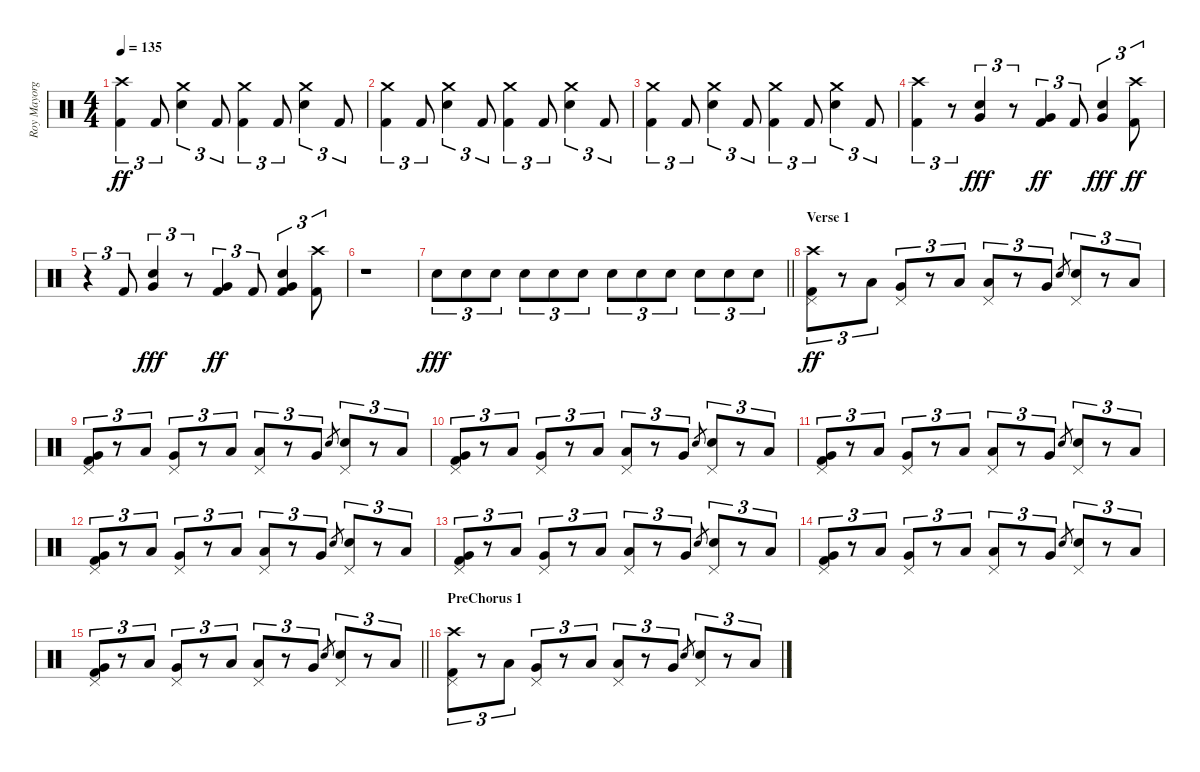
\track ("Roy Mayorga" "Roy Mayorg") {instrument percussion}
\staff {score}
\articulation defaults
\ts (4 4)
\tempo 135
\clef neutral
\ks c
("Crash high (hit)" "Kick (hit) 2").4{tu (3 2) dy ff} "Kick (hit) 2".8{tu (3 2)} ("Crash medium (hit)" "Electric Snare (hit)").4{tu (3 2)} "Kick (hit) 2".8{tu (3 2)} ("Crash medium (hit)" "Kick (hit) 2").4{tu (3 2)} "Kick (hit) 2".8{tu (3 2)} ("Crash medium (hit)" "Electric Snare (hit)").4{tu (3 2)} "Kick (hit) 2".8{tu (3 2)} |
("Crash medium (hit)" "Kick (hit) 2").4{tu (3 2)} "Kick (hit) 2".8{tu (3 2)} ("Crash medium (hit)" "Electric Snare (hit)").4{tu (3 2)} "Kick (hit) 2".8{tu (3 2)} ("Crash medium (hit)" "Kick (hit) 2").4{tu (3 2)} "Kick (hit) 2".8{tu (3 2)} ("Crash medium (hit)" "Electric Snare (hit)").4{tu (3 2)} "Kick (hit) 2".8{tu (3 2)} |
("Crash medium (hit)" "Kick (hit) 2").4{tu (3 2)} "Kick (hit) 2".8{tu (3 2)} ("Crash medium (hit)" "Electric Snare (hit)").4{tu (3 2)} "Kick (hit) 2".8{tu (3 2)} ("Crash medium (hit)" "Kick (hit) 2").4{tu (3 2)} "Kick (hit) 2".8{tu (3 2)} ("Crash medium (hit)" "Electric Snare (hit)").4{tu (3 2)} "Kick (hit) 2".8{tu (3 2)} |
("Crash high (hit)" "Kick (hit) 2").4{tu (3 2)} r.8{tu (3 2)} ("Electric Snare (hit)" "Very Low Tom (hit)").4{tu (3 2) dy fff} r.8{tu (3 2)} ("Very Low Tom (hit)" "Kick (hit) 2").4{tu (3 2) dy ff} "Kick (hit) 2".8{tu (3 2)} ("Electric Snare (hit)" "Very Low Tom (hit)").4{tu (3 2) dy fff} ("Crash high (hit)" "Kick (hit) 2").8{tu (3 2) dy ff} |
r.4{tu (3 2)} "Kick (hit) 2".8{tu (3 2)} ("Electric Snare (hit)" "Very Low Tom (hit)").4{tu (3 2) dy fff} r.8{tu (3 2)} ("Very Low Tom (hit)" "Kick (hit) 2").4{tu (3 2) dy ff} "Kick (hit) 2".8{tu (3 2)} ("Electric Snare (hit)" "Very Low Tom (hit)" "Kick (hit) 2").4{tu (3 2)} ("Crash high (hit)" "Kick (hit) 2").8{tu (3 2)} |
r.1 |
\barLineRight lightlight "Electric Snare (hit)".8{tu (3 2) dy fff} "Electric Snare (hit)".8{tu (3 2)} "Electric Snare (hit)".8{tu (3 2)} "Electric Snare (hit)".8{tu (3 2)} "Electric Snare (hit)".8{tu (3 2)} "Electric Snare (hit)".8{tu (3 2)} "Electric Snare (hit)".8{tu (3 2)} "Electric Snare (hit)".8{tu (3 2)} "Electric Snare (hit)".8{tu (3 2)} "Electric Snare (hit)".8{tu (3 2)} "Electric Snare (hit)".8{tu (3 2)} "Electric Snare (hit)".8{tu (3 2)}
|
\section ("" "Verse 1")
("Crash high (hit)" "Pedal Hi-Hat (hit)" "Kick (hit) 2").8{tu (3 2) dy ff} r.8{tu (3 2)} "Low Tom (hit)".8{tu (3 2)} ("Very Low Tom (hit)" "Pedal Hi-Hat (hit)").8{tu (3 2)} r.8{tu (3 2)} "Low Tom (hit)".8{tu (3 2)} ("Low Floor Tom (hit)" "Pedal Hi-Hat (hit)").8{tu (3 2)} r.8{tu (3 2)} "Very Low Tom (hit)".8{tu (3 2)} "Electric Snare (hit)".8{gr} ("Electric Snare (hit)" "Pedal Hi-Hat (hit)").8{tu (3 2)} r.8{tu (3 2)} "Low Floor Tom (hit)".8{tu (3 2)} |
("Pedal Hi-Hat (hit)" "Very Low Tom (hit)" "Kick (hit) 2").8{tu (3 2)} r.8{tu (3 2)} "Low Tom (hit)".8{tu (3 2)} ("Very Low Tom (hit)" "Pedal Hi-Hat (hit)").8{tu (3 2)} r.8{tu (3 2)} "Low Tom (hit)".8{tu (3 2)} ("Low Floor Tom (hit)" "Pedal Hi-Hat (hit)").8{tu (3 2)} r.8{tu (3 2)} "Very Low Tom (hit)".8{tu (3 2)} "Electric Snare (hit)".8{gr} ("Electric Snare (hit)" "Pedal Hi-Hat (hit)").8{tu (3 2)} r.8{tu (3 2)} "Low Floor Tom (hit)".8{tu (3 2)} |
("Pedal Hi-Hat (hit)" "Very Low Tom (hit)" "Kick (hit) 2").8{tu (3 2)} r.8{tu (3 2)} "Low Tom (hit)".8{tu (3 2)} ("Very Low Tom (hit)" "Pedal Hi-Hat (hit)").8{tu (3 2)} r.8{tu (3 2)} "Low Tom (hit)".8{tu (3 2)} ("Low Floor Tom (hit)" "Pedal Hi-Hat (hit)").8{tu (3 2)} r.8{tu (3 2)} "Very Low Tom (hit)".8{tu (3 2)} "Electric Snare (hit)".8{gr} ("Electric Snare (hit)" "Pedal Hi-Hat (hit)").8{tu (3 2)} r.8{tu (3 2)} "Low Floor Tom (hit)".8{tu (3 2)} |
("Pedal Hi-Hat (hit)" "Very Low Tom (hit)" "Kick (hit) 2").8{tu (3 2)} r.8{tu (3 2)} "Low Tom (hit)".8{tu (3 2)} ("Very Low Tom (hit)" "Pedal Hi-Hat (hit)").8{tu (3 2)} r.8{tu (3 2)} "Low Tom (hit)".8{tu (3 2)} ("Low Floor Tom (hit)" "Pedal Hi-Hat (hit)").8{tu (3 2)} r.8{tu (3 2)} "Very Low Tom (hit)".8{tu (3 2)} "Electric Snare (hit)".8{gr} ("Electric Snare (hit)" "Pedal Hi-Hat (hit)").8{tu (3 2)} r.8{tu (3 2)} "Low Floor Tom (hit)".8{tu (3 2)} |
("Pedal Hi-Hat (hit)" "Very Low Tom (hit)" "Kick (hit) 2").8{tu (3 2)} r.8{tu (3 2)} "Low Tom (hit)".8{tu (3 2)} ("Very Low Tom (hit)" "Pedal Hi-Hat (hit)").8{tu (3 2)} r.8{tu (3 2)} "Low Tom (hit)".8{tu (3 2)} ("Low Floor Tom (hit)" "Pedal Hi-Hat (hit)").8{tu (3 2)} r.8{tu (3 2)} "Very Low Tom (hit)".8{tu (3 2)} "Electric Snare (hit)".8{gr} ("Electric Snare (hit)" "Pedal Hi-Hat (hit)").8{tu (3 2)} r.8{tu (3 2)} "Low Floor Tom (hit)".8{tu (3 2)} |
("Pedal Hi-Hat (hit)" "Very Low Tom (hit)" "Kick (hit) 2").8{tu (3 2)} r.8{tu (3 2)} "Low Tom (hit)".8{tu (3 2)} ("Very Low Tom (hit)" "Pedal Hi-Hat (hit)").8{tu (3 2)} r.8{tu (3 2)} "Low Tom (hit)".8{tu (3 2)} ("Low Floor Tom (hit)" "Pedal Hi-Hat (hit)").8{tu (3 2)} r.8{tu (3 2)} "Very Low Tom (hit)".8{tu (3 2)} "Electric Snare (hit)".8{gr} ("Electric Snare (hit)" "Pedal Hi-Hat (hit)").8{tu (3 2)} r.8{tu (3 2)} "Low Floor Tom (hit)".8{tu (3 2)} |
("Pedal Hi-Hat (hit)" "Very Low Tom (hit)" "Kick (hit) 2").8{tu (3 2)} r.8{tu (3 2)} "Low Tom (hit)".8{tu (3 2)} ("Very Low Tom (hit)" "Pedal Hi-Hat (hit)").8{tu (3 2)} r.8{tu (3 2)} "Low Tom (hit)".8{tu (3 2)} ("Low Floor Tom (hit)" "Pedal Hi-Hat (hit)").8{tu (3 2)} r.8{tu (3 2)} "Very Low Tom (hit)".8{tu (3 2)} "Electric Snare (hit)".8{gr} ("Electric Snare (hit)" "Pedal Hi-Hat (hit)").8{tu (3 2)} r.8{tu (3 2)} "Low Floor Tom (hit)".8{tu (3 2)} |
\barLineRight lightlight
("Pedal Hi-Hat (hit)" "Very Low Tom (hit)" "Kick (hit) 2").8{tu (3 2)} r.8{tu (3 2)} "Low Tom (hit)".8{tu (3 2)} ("Very Low Tom (hit)" "Pedal Hi-Hat (hit)").8{tu (3 2)} r.8{tu (3 2)} "Low Tom (hit)".8{tu (3 2)} ("Low Floor Tom (hit)" "Pedal Hi-Hat (hit)").8{tu (3 2)} r.8{tu (3 2)} "Very Low Tom (hit)".8{tu (3 2)} "Electric Snare (hit)".8{gr} ("Electric Snare (hit)" "Pedal Hi-Hat (hit)").8{tu (3 2)} r.8{tu (3 2)} "Low Floor Tom (hit)".8{tu (3 2)} |
\section ("" "PreChorus 1")
("Crash high (hit)" "Pedal Hi-Hat (hit)" "Kick (hit) 2").8{tu (3 2)} r.8{tu (3 2)} "Low Tom (hit)".8{tu (3 2)} ("Very Low Tom (hit)" "Pedal Hi-Hat (hit)").8{tu (3 2)} r.8{tu (3 2)} "Low Tom (hit)".8{tu (3 2)} ("Low Floor Tom (hit)" "Pedal Hi-Hat (hit)").8{tu (3 2)} r.8{tu (3 2)} "Very Low Tom (hit)".8{tu (3 2)} "Electric Snare (hit)".8{gr} ("Electric Snare (hit)" "Pedal Hi-Hat (hit)").8{tu (3 2)} r.8{tu (3 2)} "Low Floor Tom (hit)".8{tu (3 2)}
